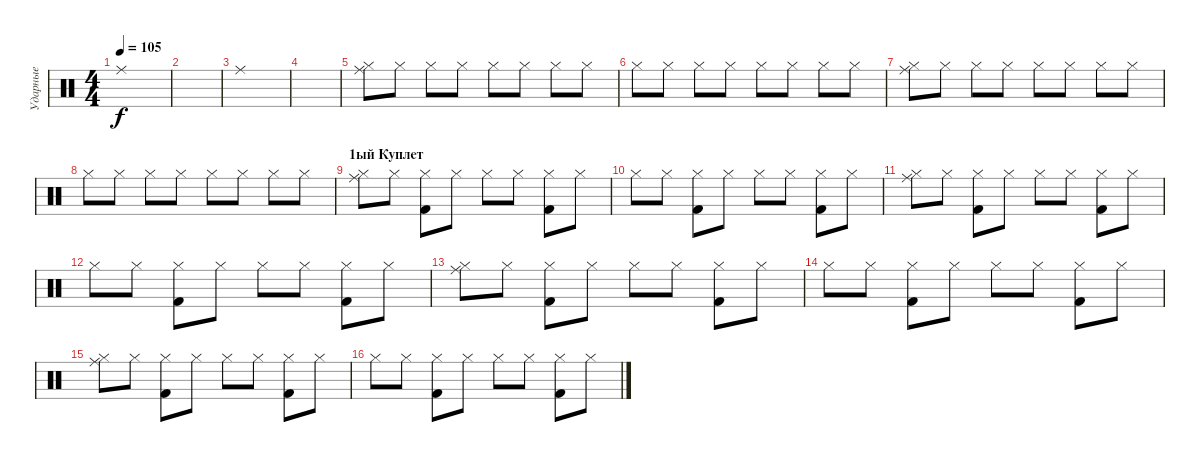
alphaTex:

\track ("Ударные" "Ударные") {instrument percussion}
\staff {score}
\articulation defaults
\ts (4 4)
\tempo 105
\clef neutral
\ks c "Ride (middle)".1{dy f}
|
|
"Ride (middle)".1 |
|
("Ride (middle)" "Hi-Hat (closed)").8 "Hi-Hat (closed)".8 "Hi-Hat (closed)".8 "Hi-Hat (closed)".8 "Hi-Hat (closed)".8 "Hi-Hat (closed)".8 "Hi-Hat (closed)".8 "Hi-Hat (closed)".8 |
"Hi-Hat (closed)".8 "Hi-Hat (closed)".8 "Hi-Hat (closed)".8 "Hi-Hat (closed)".8 "Hi-Hat (closed)".8 "Hi-Hat (closed)".8 "Hi-Hat (closed)".8 "Hi-Hat (closed)".8 |
("Ride (middle)" "Hi-Hat (closed)").8 "Hi-Hat (closed)".8 "Hi-Hat (closed)".8 "Hi-Hat (closed)".8 "Hi-Hat (closed)".8 "Hi-Hat (closed)".8 "Hi-Hat (closed)".8 "Hi-Hat (closed)".8 |
"Hi-Hat (closed)".8 "Hi-Hat (closed)".8 "Hi-Hat (closed)".8 "Hi-Hat (closed)".8 "Hi-Hat (closed)".8 "Hi-Hat (closed)".8 "Hi-Hat (closed)".8 "Hi-Hat (closed)".8 |
\section ("" "1ый Куплет")
("Ride (middle)" "Hi-Hat (closed)").8 "Hi-Hat (closed)".8 ("Hi-Hat (closed)" "Kick (hit) 2").8 "Hi-Hat (closed)".8 "Hi-Hat (closed)".8 "Hi-Hat (closed)".8 ("Hi-Hat (closed)" "Kick (hit) 2").8 "Hi-Hat (closed)".8 |
"Hi-Hat (closed)".8 "Hi-Hat (closed)".8 ("Hi-Hat (closed)" "Kick (hit) 2").8 "Hi-Hat (closed)".8 "Hi-Hat (closed)".8 "Hi-Hat (closed)".8 ("Hi-Hat (closed)" "Kick (hit) 2").8 "Hi-Hat (closed)".8 |
("Ride (middle)" "Hi-Hat (closed)").8 "Hi-Hat (closed)".8 ("Hi-Hat (closed)" "Kick (hit) 2").8 "Hi-Hat (closed)".8 "Hi-Hat (closed)".8 "Hi-Hat (closed)".8 ("Hi-Hat (closed)" "Kick (hit) 2").8 "Hi-Hat (closed)".8 |
"Hi-Hat (closed)".8 "Hi-Hat (closed)".8 ("Hi-Hat (closed)" "Kick (hit) 2").8 "Hi-Hat (closed)".8 "Hi-Hat (closed)".8 "Hi-Hat (closed)".8 ("Hi-Hat (closed)" "Kick (hit) 2").8 "Hi-Hat (closed)".8 |
("Ride (middle)" "Hi-Hat (closed)").8 "Hi-Hat (closed)".8 ("Hi-Hat (closed)" "Kick (hit) 2").8 "Hi-Hat (closed)".8 "Hi-Hat (closed)".8 "Hi-Hat (closed)".8 ("Hi-Hat (closed)" "Kick (hit) 2").8 "Hi-Hat (closed)".8 |
"Hi-Hat (closed)".8 "Hi-Hat (closed)".8 ("Hi-Hat (closed)" "Kick (hit) 2").8 "Hi-Hat (closed)".8 "Hi-Hat (closed)".8 "Hi-Hat (closed)".8 ("Hi-Hat (closed)" "Kick (hit) 2").8 "Hi-Hat (closed)".8 |
("Ride (middle)" "Hi-Hat (closed)").8 "Hi-Hat (closed)".8 ("Hi-Hat (closed)" "Kick (hit) 2").8 "Hi-Hat (closed)".8 "Hi-Hat (closed)".8 "Hi-Hat (closed)".8 ("Hi-Hat (closed)" "Kick (hit) 2").8 "Hi-Hat (closed)".8 |
"Hi-Hat (closed)".8 "Hi-Hat (closed)".8 ("Hi-Hat (closed)" "Kick (hit) 2").8 "Hi-Hat (closed)".8 "Hi-Hat (closed)".8 "Hi-Hat (closed)".8 ("Hi-Hat (closed)" "Kick (hit) 2").8 "Hi-Hat (closed)".8
